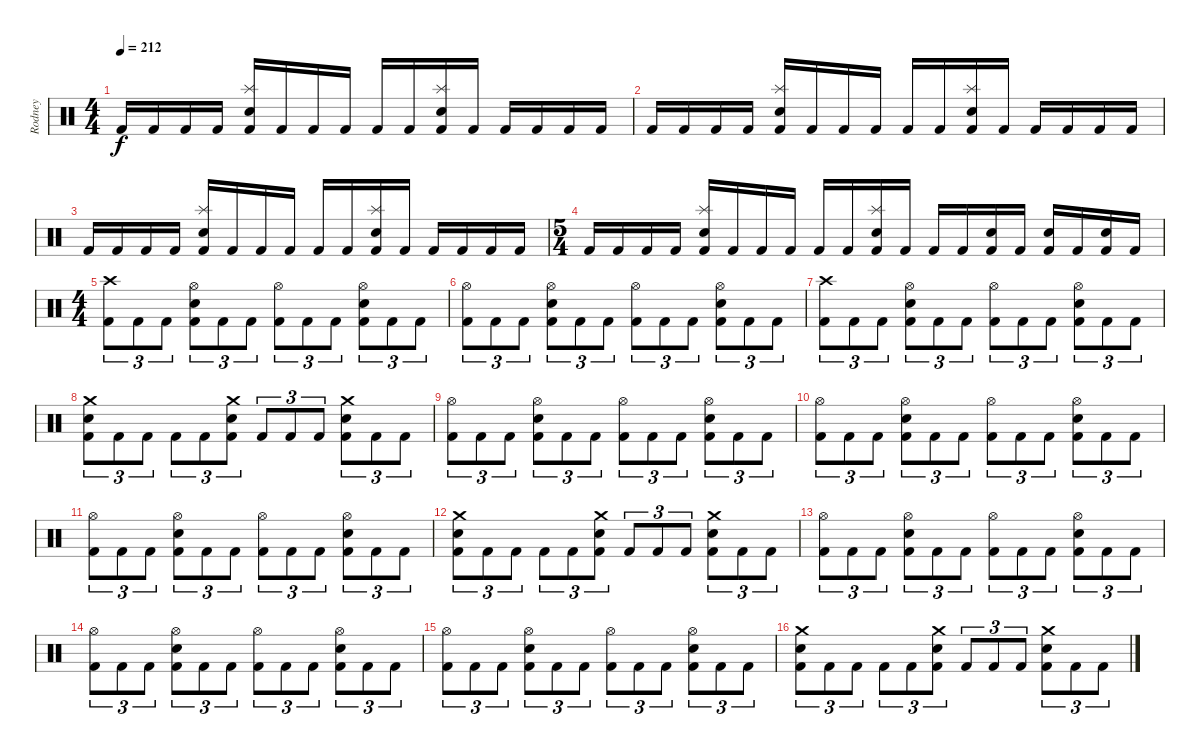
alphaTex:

\track ("Rodney" "Rodney") {instrument percussion}
\staff {score}
\articulation defaults
\ts (4 4)
\tempo 212
\clef neutral
\ks c "Kick (hit) 2".16{dy f} "Kick (hit) 2".16 "Kick (hit) 2".16 "Kick (hit) 2".16
("Splash (hit)" "Snare (hit) 2" "Kick (hit) 2").16 "Kick (hit) 2".16 "Kick (hit) 2".16 "Kick (hit) 2".16 "Kick (hit) 2".16 "Kick (hit) 2".16 ("Splash (hit)" "Snare (hit) 2" "Kick (hit) 2").16 "Kick (hit) 2".16 "Kick (hit) 2".16 "Kick (hit) 2".16 "Kick (hit) 2".16 "Kick (hit) 2".16 |
"Kick (hit) 2".16 "Kick (hit) 2".16 "Kick (hit) 2".16 "Kick (hit) 2".16 ("Splash (hit)" "Snare (hit) 2" "Kick (hit) 2").16 "Kick (hit) 2".16 "Kick (hit) 2".16 "Kick (hit) 2".16 "Kick (hit) 2".16 "Kick (hit) 2".16 ("Splash (hit)" "Snare (hit) 2" "Kick (hit) 2").16 "Kick (hit) 2".16 "Kick (hit) 2".16 "Kick (hit) 2".16 "Kick (hit) 2".16 "Kick (hit) 2".16 |
"Kick (hit) 2".16 "Kick (hit) 2".16 "Kick (hit) 2".16 "Kick (hit) 2".16 ("Splash (hit)" "Snare (hit) 2" "Kick (hit) 2").16 "Kick (hit) 2".16 "Kick (hit) 2".16 "Kick (hit) 2".16 "Kick (hit) 2".16 "Kick (hit) 2".16 ("Splash (hit)" "Snare (hit) 2" "Kick (hit) 2").16 "Kick (hit) 2".16 "Kick (hit) 2".16 "Kick (hit) 2".16 "Kick (hit) 2".16 "Kick (hit) 2".16 |
\ts (5 4)
"Kick (hit) 2".16 "Kick (hit) 2".16 "Kick (hit) 2".16 "Kick (hit) 2".16 ("Splash (hit)" "Snare (hit) 2" "Kick (hit) 2").16 "Kick (hit) 2".16 "Kick (hit) 2".16 "Kick (hit) 2".16 "Kick (hit) 2".16 "Kick (hit) 2".16 ("Splash (hit)" "Snare (hit) 2" "Kick (hit) 2").16 "Kick (hit) 2".16 "Kick (hit) 2".16 "Kick (hit) 2".16 ("Snare (hit) 2" "Kick (hit) 2").16 "Kick (hit) 2".16 ("Snare (hit) 2" "Kick (hit) 2").16 "Kick (hit) 2".16 ("Snare (hit) 2" "Kick (hit) 2").16 "Kick (hit) 2".16 |
\ts (4 4)
("Crash high (hit)" "Kick (hit) 2").8{tu (3 2)} "Kick (hit) 2".8{tu (3 2)} "Kick (hit) 2".8{tu (3 2)} ("Hi-Hat (open)" "Snare (hit) 2" "Kick (hit) 2").8{tu (3 2)} "Kick (hit) 2".8{tu (3 2)} "Kick (hit) 2".8{tu (3 2)} ("Hi-Hat (open)" "Kick (hit) 2").8{tu (3 2)} "Kick (hit) 2".8{tu (3 2)} "Kick (hit) 2".8{tu (3 2)} ("Hi-Hat (open)" "Snare (hit) 2" "Kick (hit) 2").8{tu (3 2)} "Kick (hit) 2".8{tu (3 2)} "Kick (hit) 2".8{tu (3 2)} |
("Hi-Hat (open)" "Kick (hit) 2").8{tu (3 2)} "Kick (hit) 2".8{tu (3 2)} "Kick (hit) 2".8{tu (3 2)} ("Hi-Hat (open)" "Snare (hit) 2" "Kick (hit) 2").8{tu (3 2)} "Kick (hit) 2".8{tu (3 2)} "Kick (hit) 2".8{tu (3 2)} ("Hi-Hat (open)" "Kick (hit) 2").8{tu (3 2)} "Kick (hit) 2".8{tu (3 2)} "Kick (hit) 2".8{tu (3 2)} ("Hi-Hat (open)" "Snare (hit) 2" "Kick (hit) 2").8{tu (3 2)} "Kick (hit) 2".8{tu (3 2)} "Kick (hit) 2".8{tu (3 2)} |
("Crash high (hit)" "Kick (hit) 2").8{tu (3 2)} "Kick (hit) 2".8{tu (3 2)} "Kick (hit) 2".8{tu (3 2)} ("Hi-Hat (open)" "Snare (hit) 2" "Kick (hit) 2").8{tu (3 2)} "Kick (hit) 2".8{tu (3 2)} "Kick (hit) 2".8{tu (3 2)} ("Hi-Hat (open)" "Kick (hit) 2").8{tu (3 2)} "Kick (hit) 2".8{tu (3 2)} "Kick (hit) 2".8{tu (3 2)} ("Hi-Hat (open)" "Snare (hit) 2" "Kick (hit) 2").8{tu (3 2)} "Kick (hit) 2".8{tu (3 2)} "Kick (hit) 2".8{tu (3 2)} |
("Crash medium (hit)" "Snare (hit) 2" "Kick (hit) 2").8{tu (3 2)} "Kick (hit) 2".8{tu (3 2)} "Kick (hit) 2".8{tu (3 2)} "Kick (hit) 2".8{tu (3 2)} "Kick (hit) 2".8{tu (3 2)} ("Crash medium (hit)" "Snare (hit) 2" "Kick (hit) 2").8{tu (3 2)} "Kick (hit) 2".8{tu (3 2)} "Kick (hit) 2".8{tu (3 2)} "Kick (hit) 2".8{tu (3 2)} ("Crash medium (hit)" "Snare (hit) 2" "Kick (hit) 2").8{tu (3 2)} "Kick (hit) 2".8{tu (3 2)} "Kick (hit) 2".8{tu (3 2)} |
("Hi-Hat (open)" "Kick (hit) 2").8{tu (3 2)} "Kick (hit) 2".8{tu (3 2)} "Kick (hit) 2".8{tu (3 2)} ("Hi-Hat (open)" "Snare (hit) 2" "Kick (hit) 2").8{tu (3 2)} "Kick (hit) 2".8{tu (3 2)} "Kick (hit) 2".8{tu (3 2)} ("Hi-Hat (open)" "Kick (hit) 2").8{tu (3 2)} "Kick (hit) 2".8{tu (3 2)} "Kick (hit) 2".8{tu (3 2)} ("Hi-Hat (open)" "Snare (hit) 2" "Kick (hit) 2").8{tu (3 2)} "Kick (hit) 2".8{tu (3 2)} "Kick (hit) 2".8{tu (3 2)} |
("Hi-Hat (open)" "Kick (hit) 2").8{tu (3 2)} "Kick (hit) 2".8{tu (3 2)} "Kick (hit) 2".8{tu (3 2)} ("Hi-Hat (open)" "Snare (hit) 2" "Kick (hit) 2").8{tu (3 2)} "Kick (hit) 2".8{tu (3 2)} "Kick (hit) 2".8{tu (3 2)} ("Hi-Hat (open)" "Kick (hit) 2").8{tu (3 2)} "Kick (hit) 2".8{tu (3 2)} "Kick (hit) 2".8{tu (3 2)} ("Hi-Hat (open)" "Snare (hit) 2" "Kick (hit) 2").8{tu (3 2)} "Kick (hit) 2".8{tu (3 2)} "Kick (hit) 2".8{tu (3 2)} |
("Hi-Hat (open)" "Kick (hit) 2").8{tu (3 2)} "Kick (hit) 2".8{tu (3 2)} "Kick (hit) 2".8{tu (3 2)} ("Hi-Hat (open)" "Snare (hit) 2" "Kick (hit) 2").8{tu (3 2)} "Kick (hit) 2".8{tu (3 2)} "Kick (hit) 2".8{tu (3 2)} ("Hi-Hat (open)" "Kick (hit) 2").8{tu (3 2)} "Kick (hit) 2".8{tu (3 2)} "Kick (hit) 2".8{tu (3 2)} ("Hi-Hat (open)" "Snare (hit) 2" "Kick (hit) 2").8{tu (3 2)} "Kick (hit) 2".8{tu (3 2)} "Kick (hit) 2".8{tu (3 2)} |
("Crash medium (hit)" "Snare (hit) 2" "Kick (hit) 2").8{tu (3 2)} "Kick (hit) 2".8{tu (3 2)} "Kick (hit) 2".8{tu (3 2)} "Kick (hit) 2".8{tu (3 2)} "Kick (hit) 2".8{tu (3 2)} ("Crash medium (hit)" "Snare (hit) 2" "Kick (hit) 2").8{tu (3 2)} "Kick (hit) 2".8{tu (3 2)} "Kick (hit) 2".8{tu (3 2)} "Kick (hit) 2".8{tu (3 2)} ("Crash medium (hit)" "Snare (hit) 2" "Kick (hit) 2").8{tu (3 2)} "Kick (hit) 2".8{tu (3 2)} "Kick (hit) 2".8{tu (3 2)} |
("Hi-Hat (open)" "Kick (hit) 2").8{tu (3 2)} "Kick (hit) 2".8{tu (3 2)} "Kick (hit) 2".8{tu (3 2)} ("Hi-Hat (open)" "Snare (hit) 2" "Kick (hit) 2").8{tu (3 2)} "Kick (hit) 2".8{tu (3 2)} "Kick (hit) 2".8{tu (3 2)} ("Hi-Hat (open)" "Kick (hit) 2").8{tu (3 2)} "Kick (hit) 2".8{tu (3 2)} "Kick (hit) 2".8{tu (3 2)} ("Hi-Hat (open)" "Snare (hit) 2" "Kick (hit) 2").8{tu (3 2)} "Kick (hit) 2".8{tu (3 2)} "Kick (hit) 2".8{tu (3 2)} |
("Hi-Hat (open)" "Kick (hit) 2").8{tu (3 2)} "Kick (hit) 2".8{tu (3 2)} "Kick (hit) 2".8{tu (3 2)} ("Hi-Hat (open)" "Snare (hit) 2" "Kick (hit) 2").8{tu (3 2)} "Kick (hit) 2".8{tu (3 2)} "Kick (hit) 2".8{tu (3 2)} ("Hi-Hat (open)" "Kick (hit) 2").8{tu (3 2)} "Kick (hit) 2".8{tu (3 2)} "Kick (hit) 2".8{tu (3 2)} ("Hi-Hat (open)" "Snare (hit) 2" "Kick (hit) 2").8{tu (3 2)} "Kick (hit) 2".8{tu (3 2)} "Kick (hit) 2".8{tu (3 2)} |
("Hi-Hat (open)" "Kick (hit) 2").8{tu (3 2)} "Kick (hit) 2".8{tu (3 2)} "Kick (hit) 2".8{tu (3 2)} ("Hi-Hat (open)" "Snare (hit) 2" "Kick (hit) 2").8{tu (3 2)} "Kick (hit) 2".8{tu (3 2)} "Kick (hit) 2".8{tu (3 2)} ("Hi-Hat (open)" "Kick (hit) 2").8{tu (3 2)} "Kick (hit) 2".8{tu (3 2)} "Kick (hit) 2".8{tu (3 2)} ("Hi-Hat (open)" "Snare (hit) 2" "Kick (hit) 2").8{tu (3 2)} "Kick (hit) 2".8{tu (3 2)} "Kick (hit) 2".8{tu (3 2)} |
("Crash medium (hit)" "Snare (hit) 2" "Kick (hit) 2").8{tu (3 2)} "Kick (hit) 2".8{tu (3 2)} "Kick (hit) 2".8{tu (3 2)} "Kick (hit) 2".8{tu (3 2)} "Kick (hit) 2".8{tu (3 2)} ("Crash medium (hit)" "Snare (hit) 2" "Kick (hit) 2").8{tu (3 2)} "Kick (hit) 2".8{tu (3 2)} "Kick (hit) 2".8{tu (3 2)} "Kick (hit) 2".8{tu (3 2)} ("Crash medium (hit)" "Snare (hit) 2" "Kick (hit) 2").8{tu (3 2)} "Kick (hit) 2".8{tu (3 2)} "Kick (hit) 2".8{tu (3 2)}
